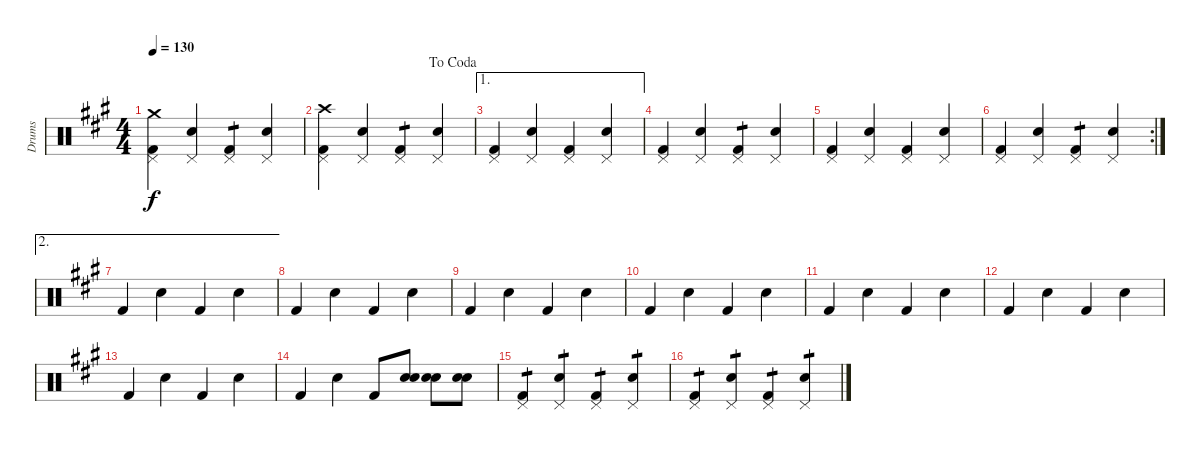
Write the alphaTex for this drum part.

\track ("Drums" "Drums") {instrument percussion}
\staff {score}
\articulation defaults
\ts (4 4)
\tempo 130
\clef neutral
\ks a
("Kick (hit) 2" "Pedal Hi-Hat (hit)" "Crash medium (hit)").4{dy f} ("Snare (hit) 2" "Pedal Hi-Hat (hit)").4 ("Kick (hit) 2" "Pedal Hi-Hat (hit)").4{tp 1} ("Snare (hit) 2" "Pedal Hi-Hat (hit)").4 |
\jump dacoda
("Kick (hit) 2" "Pedal Hi-Hat (hit)" "Crash high (hit)").4 ("Snare (hit) 2" "Pedal Hi-Hat (hit)").4 ("Kick (hit) 2" "Pedal Hi-Hat (hit)").4{tp 1} ("Snare (hit) 2" "Pedal Hi-Hat (hit)").4 |
\ae 1
("Kick (hit) 2" "Pedal Hi-Hat (hit)").4 ("Snare (hit) 2" "Pedal Hi-Hat (hit)").4 ("Kick (hit) 2" "Pedal Hi-Hat (hit)").4 ("Snare (hit) 2" "Pedal Hi-Hat (hit)").4 |
("Kick (hit) 2" "Pedal Hi-Hat (hit)").4 ("Snare (hit) 2" "Pedal Hi-Hat (hit)").4 ("Kick (hit) 2" "Pedal Hi-Hat (hit)").4{tp 1} ("Snare (hit) 2" "Pedal Hi-Hat (hit)").4 |
("Kick (hit) 2" "Pedal Hi-Hat (hit)").4 ("Snare (hit) 2" "Pedal Hi-Hat (hit)").4 ("Kick (hit) 2" "Pedal Hi-Hat (hit)").4 ("Snare (hit) 2" "Pedal Hi-Hat (hit)").4 |
\rc 2
("Kick (hit) 2" "Pedal Hi-Hat (hit)").4 ("Snare (hit) 2" "Pedal Hi-Hat (hit)").4 ("Kick (hit) 2" "Pedal Hi-Hat (hit)").4{tp 1} ("Snare (hit) 2" "Pedal Hi-Hat (hit)").4 |
\ae 2 "Kick (hit) 2".4 "Hand Clap (hit)".4 "Kick (hit) 2".4 "Hand Clap (hit)".4
|
"Kick (hit) 2".4 "Hand Clap (hit)".4 "Kick (hit) 2".4 "Hand Clap (hit)".4 |
"Kick (hit) 2".4 "Hand Clap (hit)".4 "Kick (hit) 2".4 "Hand Clap (hit)".4 |
"Kick (hit) 2".4 "Hand Clap (hit)".4 "Kick (hit) 2".4 "Hand Clap (hit)".4 |
"Kick (hit) 2".4 "Hand Clap (hit)".4 "Kick (hit) 2".4 "Hand Clap (hit)".4 |
"Kick (hit) 2".4 "Hand Clap (hit)".4 "Kick (hit) 2".4 "Hand Clap (hit)".4 |
"Kick (hit) 2".4 "Hand Clap (hit)".4 "Kick (hit) 2".4 "Hand Clap (hit)".4 |
"Kick (hit) 2".4 "Hand Clap (hit)".4 "Kick (hit) 2".8 ("Hand Clap (hit)" "Snare (hit) 2").8 ("Hand Clap (hit)" "Snare (hit) 2").8 ("Hand Clap (hit)" "Snare (hit) 2").8 |
("Kick (hit) 2" "Pedal Hi-Hat (hit)").4{tp 1} ("Snare (hit) 2" "Pedal Hi-Hat (hit)").4{tp 1} ("Kick (hit) 2" "Pedal Hi-Hat (hit)").4{tp 1} ("Snare (hit) 2" "Pedal Hi-Hat (hit)").4{tp 1} |
("Kick (hit) 2" "Pedal Hi-Hat (hit)").4{tp 1} ("Snare (hit) 2" "Pedal Hi-Hat (hit)").4{tp 1} ("Kick (hit) 2" "Pedal Hi-Hat (hit)").4{tp 1} ("Snare (hit) 2" "Pedal Hi-Hat (hit)").4{tp 1}
